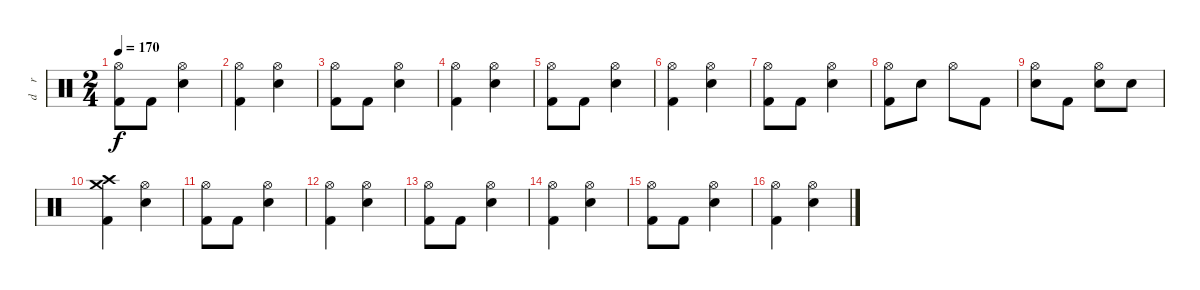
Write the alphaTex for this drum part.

\track ("d    r     u     m    s" "d    r    ") {instrument percussion}
\staff {score}
\articulation defaults
\ts (2 4)
\tempo 170
\clef neutral
\ks c
("Hi-Hat (open)" "Kick (hit) 2").8{dy f} "Kick (hit) 2".8 ("Hi-Hat (open)" "Electric Snare (hit)").4 |
("Hi-Hat (open)" "Kick (hit) 2").4 ("Hi-Hat (open)" "Electric Snare (hit)").4 |
("Hi-Hat (open)" "Kick (hit) 2").8 "Kick (hit) 2".8 ("Hi-Hat (open)" "Electric Snare (hit)").4 |
("Hi-Hat (open)" "Kick (hit) 2").4 ("Hi-Hat (open)" "Electric Snare (hit)").4 |
("Hi-Hat (open)" "Kick (hit) 2").8 "Kick (hit) 2".8 ("Hi-Hat (open)" "Electric Snare (hit)").4 |
("Hi-Hat (open)" "Kick (hit) 2").4 ("Hi-Hat (open)" "Electric Snare (hit)").4 |
("Hi-Hat (open)" "Kick (hit) 2").8 "Kick (hit) 2".8 ("Hi-Hat (open)" "Electric Snare (hit)").4 |
("Hi-Hat (open)" "Kick (hit) 2").8 "Electric Snare (hit)".8 "Hi-Hat (open)".8 "Kick (hit) 2".8 |
("Hi-Hat (open)" "Electric Snare (hit)").8 "Kick (hit) 2".8 ("Hi-Hat (open)" "Electric Snare (hit)").8 "Electric Snare (hit)".8 |
("Crash high (hit)" "Crash medium (hit)" "Kick (hit) 2").4 ("Hi-Hat (open)" "Electric Snare (hit)").4 |
("Hi-Hat (open)" "Kick (hit) 2").8 "Kick (hit) 2".8 ("Hi-Hat (open)" "Electric Snare (hit)").4 |
("Hi-Hat (open)" "Kick (hit) 2").4 ("Hi-Hat (open)" "Electric Snare (hit)").4 |
("Hi-Hat (open)" "Kick (hit) 2").8 "Kick (hit) 2".8 ("Hi-Hat (open)" "Electric Snare (hit)").4 |
("Hi-Hat (open)" "Kick (hit) 2").4 ("Hi-Hat (open)" "Electric Snare (hit)").4 |
("Hi-Hat (open)" "Kick (hit) 2").8 "Kick (hit) 2".8 ("Hi-Hat (open)" "Electric Snare (hit)").4 |
("Hi-Hat (open)" "Kick (hit) 2").4 ("Hi-Hat (open)" "Electric Snare (hit)").4
